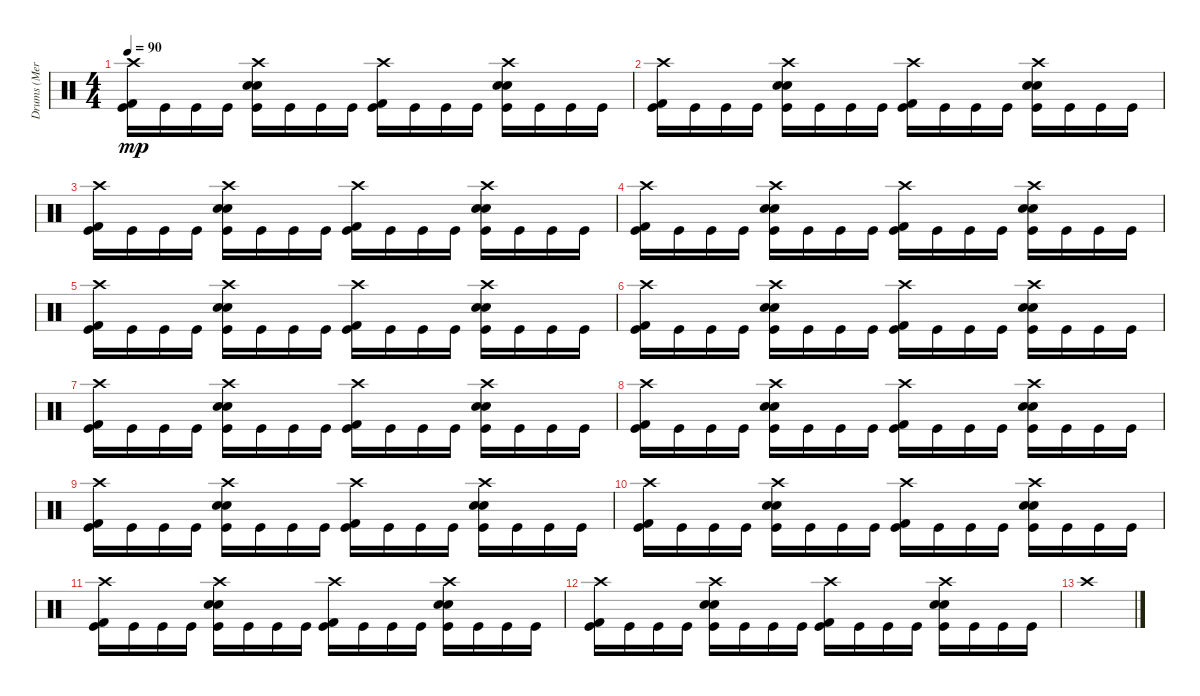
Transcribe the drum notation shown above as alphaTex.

\track ("Drums (Merlin)" "Drums (Mer") {instrument percussion}
\staff {score}
\articulation defaults
\ts (4 4)
\tempo 90
\clef neutral
\ks c
("Crash high (hit)" "Kick (hit) 2" "Kick (hit)").16{dy mp} "Kick (hit)".16 "Kick (hit)".16 "Kick (hit)".16 ("Electric Snare (hit)" "Crash high (hit)" "Snare (hit) 2" "Kick (hit)").16 "Kick (hit)".16 "Kick (hit)".16 "Kick (hit)".16 ("Crash high (hit)" "Kick (hit) 2" "Kick (hit)").16 "Kick (hit)".16 "Kick (hit)".16 "Kick (hit)".16 ("Electric Snare (hit)" "Crash high (hit)" "Snare (hit) 2" "Kick (hit)").16 "Kick (hit)".16 "Kick (hit)".16 "Kick (hit)".16 |
("Crash high (hit)" "Kick (hit) 2" "Kick (hit)").16 "Kick (hit)".16 "Kick (hit)".16 "Kick (hit)".16 ("Electric Snare (hit)" "Crash high (hit)" "Snare (hit) 2" "Kick (hit)").16 "Kick (hit)".16 "Kick (hit)".16 "Kick (hit)".16 ("Crash high (hit)" "Kick (hit) 2" "Kick (hit)").16 "Kick (hit)".16 "Kick (hit)".16 "Kick (hit)".16 ("Electric Snare (hit)" "Crash high (hit)" "Snare (hit) 2" "Kick (hit)").16 "Kick (hit)".16 "Kick (hit)".16 "Kick (hit)".16 |
("Crash high (hit)" "Kick (hit) 2" "Kick (hit)").16 "Kick (hit)".16 "Kick (hit)".16 "Kick (hit)".16 ("Electric Snare (hit)" "Crash high (hit)" "Snare (hit) 2" "Kick (hit)").16 "Kick (hit)".16 "Kick (hit)".16 "Kick (hit)".16 ("Crash high (hit)" "Kick (hit) 2" "Kick (hit)").16 "Kick (hit)".16 "Kick (hit)".16 "Kick (hit)".16 ("Electric Snare (hit)" "Crash high (hit)" "Snare (hit) 2" "Kick (hit)").16 "Kick (hit)".16 "Kick (hit)".16 "Kick (hit)".16 |
("Crash high (hit)" "Kick (hit) 2" "Kick (hit)").16 "Kick (hit)".16 "Kick (hit)".16 "Kick (hit)".16 ("Electric Snare (hit)" "Crash high (hit)" "Snare (hit) 2" "Kick (hit)").16 "Kick (hit)".16 "Kick (hit)".16 "Kick (hit)".16 ("Crash high (hit)" "Kick (hit) 2" "Kick (hit)").16 "Kick (hit)".16 "Kick (hit)".16 "Kick (hit)".16 ("Electric Snare (hit)" "Crash high (hit)" "Snare (hit) 2" "Kick (hit)").16 "Kick (hit)".16 "Kick (hit)".16 "Kick (hit)".16 |
("Crash high (hit)" "Kick (hit) 2" "Kick (hit)").16 "Kick (hit)".16 "Kick (hit)".16 "Kick (hit)".16 ("Electric Snare (hit)" "Crash high (hit)" "Snare (hit) 2" "Kick (hit)").16 "Kick (hit)".16 "Kick (hit)".16 "Kick (hit)".16 ("Crash high (hit)" "Kick (hit) 2" "Kick (hit)").16 "Kick (hit)".16 "Kick (hit)".16 "Kick (hit)".16 ("Electric Snare (hit)" "Crash high (hit)" "Snare (hit) 2" "Kick (hit)").16 "Kick (hit)".16 "Kick (hit)".16 "Kick (hit)".16 |
("Crash high (hit)" "Kick (hit) 2" "Kick (hit)").16 "Kick (hit)".16 "Kick (hit)".16 "Kick (hit)".16 ("Electric Snare (hit)" "Crash high (hit)" "Snare (hit) 2" "Kick (hit)").16 "Kick (hit)".16 "Kick (hit)".16 "Kick (hit)".16 ("Crash high (hit)" "Kick (hit) 2" "Kick (hit)").16 "Kick (hit)".16 "Kick (hit)".16 "Kick (hit)".16 ("Electric Snare (hit)" "Crash high (hit)" "Snare (hit) 2" "Kick (hit)").16 "Kick (hit)".16 "Kick (hit)".16 "Kick (hit)".16 |
("Crash high (hit)" "Kick (hit) 2" "Kick (hit)").16 "Kick (hit)".16 "Kick (hit)".16 "Kick (hit)".16 ("Electric Snare (hit)" "Crash high (hit)" "Snare (hit) 2" "Kick (hit)").16 "Kick (hit)".16 "Kick (hit)".16 "Kick (hit)".16 ("Crash high (hit)" "Kick (hit) 2" "Kick (hit)").16 "Kick (hit)".16 "Kick (hit)".16 "Kick (hit)".16 ("Electric Snare (hit)" "Crash high (hit)" "Snare (hit) 2" "Kick (hit)").16 "Kick (hit)".16 "Kick (hit)".16 "Kick (hit)".16 |
("Crash high (hit)" "Kick (hit) 2" "Kick (hit)").16 "Kick (hit)".16 "Kick (hit)".16 "Kick (hit)".16 ("Electric Snare (hit)" "Crash high (hit)" "Snare (hit) 2" "Kick (hit)").16 "Kick (hit)".16 "Kick (hit)".16 "Kick (hit)".16 ("Crash high (hit)" "Kick (hit) 2" "Kick (hit)").16 "Kick (hit)".16 "Kick (hit)".16 "Kick (hit)".16 ("Electric Snare (hit)" "Crash high (hit)" "Snare (hit) 2" "Kick (hit)").16 "Kick (hit)".16 "Kick (hit)".16 "Kick (hit)".16 |
("Crash high (hit)" "Kick (hit) 2" "Kick (hit)").16 "Kick (hit)".16 "Kick (hit)".16 "Kick (hit)".16 ("Electric Snare (hit)" "Crash high (hit)" "Snare (hit) 2" "Kick (hit)").16 "Kick (hit)".16 "Kick (hit)".16 "Kick (hit)".16 ("Crash high (hit)" "Kick (hit) 2" "Kick (hit)").16 "Kick (hit)".16 "Kick (hit)".16 "Kick (hit)".16 ("Electric Snare (hit)" "Crash high (hit)" "Snare (hit) 2" "Kick (hit)").16 "Kick (hit)".16 "Kick (hit)".16 "Kick (hit)".16 |
("Crash high (hit)" "Kick (hit) 2" "Kick (hit)").16 "Kick (hit)".16 "Kick (hit)".16 "Kick (hit)".16 ("Electric Snare (hit)" "Crash high (hit)" "Snare (hit) 2" "Kick (hit)").16 "Kick (hit)".16 "Kick (hit)".16 "Kick (hit)".16 ("Crash high (hit)" "Kick (hit) 2" "Kick (hit)").16 "Kick (hit)".16 "Kick (hit)".16 "Kick (hit)".16 ("Electric Snare (hit)" "Crash high (hit)" "Snare (hit) 2" "Kick (hit)").16 "Kick (hit)".16 "Kick (hit)".16 "Kick (hit)".16 |
("Crash high (hit)" "Kick (hit) 2" "Kick (hit)").16 "Kick (hit)".16 "Kick (hit)".16 "Kick (hit)".16 ("Electric Snare (hit)" "Crash high (hit)" "Snare (hit) 2" "Kick (hit)").16 "Kick (hit)".16 "Kick (hit)".16 "Kick (hit)".16 ("Crash high (hit)" "Kick (hit) 2" "Kick (hit)").16 "Kick (hit)".16 "Kick (hit)".16 "Kick (hit)".16 ("Electric Snare (hit)" "Crash high (hit)" "Snare (hit) 2" "Kick (hit)").16 "Kick (hit)".16 "Kick (hit)".16 "Kick (hit)".16 |
("Crash high (hit)" "Kick (hit) 2" "Kick (hit)").16 "Kick (hit)".16 "Kick (hit)".16 "Kick (hit)".16 ("Electric Snare (hit)" "Crash high (hit)" "Snare (hit) 2" "Kick (hit)").16 "Kick (hit)".16 "Kick (hit)".16 "Kick (hit)".16 ("Crash high (hit)" "Kick (hit) 2" "Kick (hit)").16 "Kick (hit)".16 "Kick (hit)".16 "Kick (hit)".16 ("Electric Snare (hit)" "Crash high (hit)" "Snare (hit) 2" "Kick (hit)").16 "Kick (hit)".16 "Kick (hit)".16 "Kick (hit)".16 |
"Crash high (hit)".1
